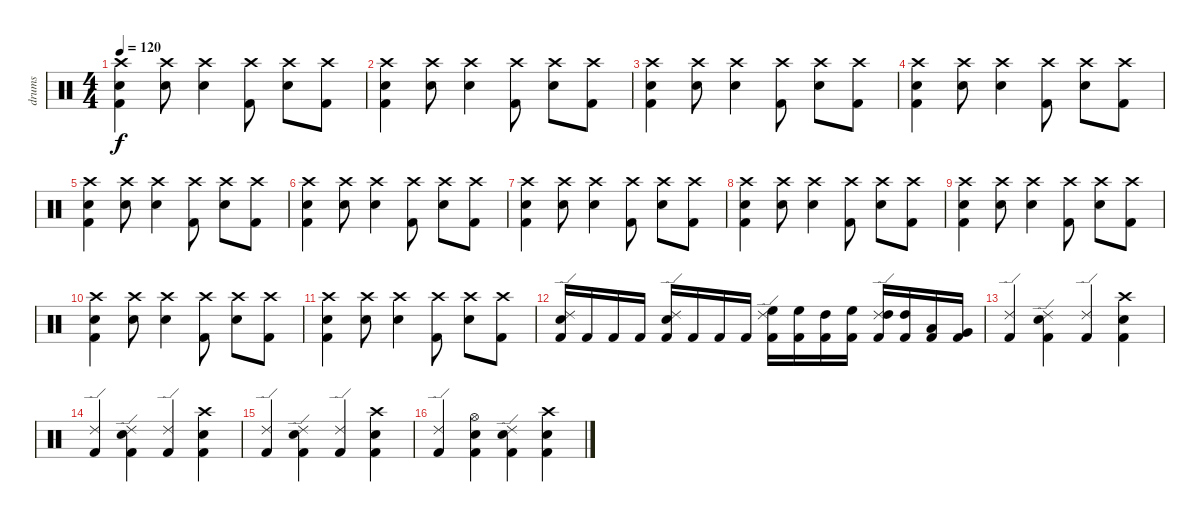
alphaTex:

\track ("drums" "drums") {instrument percussion}
\staff {score}
\articulation defaults
\ts (4 4)
\tempo 120
\clef neutral
\ks c
("Crash high (hit)" "Electric Snare (hit)" "Kick (hit) 2").4{dy f} ("Crash high (hit)" "Electric Snare (hit)").8 ("Crash high (hit)" "Electric Snare (hit)").4 ("Crash high (hit)" "Kick (hit) 2").8 ("Crash high (hit)" "Electric Snare (hit)").8 ("Crash high (hit)" "Kick (hit) 2").8 |
("Crash high (hit)" "Electric Snare (hit)" "Kick (hit) 2").4 ("Crash high (hit)" "Electric Snare (hit)").8 ("Crash high (hit)" "Electric Snare (hit)").4 ("Crash high (hit)" "Kick (hit) 2").8 ("Crash high (hit)" "Electric Snare (hit)").8 ("Crash high (hit)" "Kick (hit) 2").8 |
("Crash high (hit)" "Electric Snare (hit)" "Kick (hit) 2").4 ("Crash high (hit)" "Electric Snare (hit)").8 ("Crash high (hit)" "Electric Snare (hit)").4 ("Crash high (hit)" "Kick (hit) 2").8 ("Crash high (hit)" "Electric Snare (hit)").8 ("Crash high (hit)" "Kick (hit) 2").8 |
("Crash high (hit)" "Electric Snare (hit)" "Kick (hit) 2").4 ("Crash high (hit)" "Electric Snare (hit)").8 ("Crash high (hit)" "Electric Snare (hit)").4 ("Crash high (hit)" "Kick (hit) 2").8 ("Crash high (hit)" "Electric Snare (hit)").8 ("Crash high (hit)" "Kick (hit) 2").8 |
("Crash high (hit)" "Electric Snare (hit)" "Kick (hit) 2").4 ("Crash high (hit)" "Electric Snare (hit)").8 ("Crash high (hit)" "Electric Snare (hit)").4 ("Crash high (hit)" "Kick (hit) 2").8 ("Crash high (hit)" "Electric Snare (hit)").8 ("Crash high (hit)" "Kick (hit) 2").8 |
("Crash high (hit)" "Electric Snare (hit)" "Kick (hit) 2").4 ("Crash high (hit)" "Electric Snare (hit)").8 ("Crash high (hit)" "Electric Snare (hit)").4 ("Crash high (hit)" "Kick (hit) 2").8 ("Crash high (hit)" "Electric Snare (hit)").8 ("Crash high (hit)" "Kick (hit) 2").8 |
("Crash high (hit)" "Electric Snare (hit)" "Kick (hit) 2").4 ("Crash high (hit)" "Electric Snare (hit)").8 ("Crash high (hit)" "Electric Snare (hit)").4 ("Crash high (hit)" "Kick (hit) 2").8 ("Crash high (hit)" "Electric Snare (hit)").8 ("Crash high (hit)" "Kick (hit) 2").8 |
("Crash high (hit)" "Electric Snare (hit)" "Kick (hit) 2").4 ("Crash high (hit)" "Electric Snare (hit)").8 ("Crash high (hit)" "Electric Snare (hit)").4 ("Crash high (hit)" "Kick (hit) 2").8 ("Crash high (hit)" "Electric Snare (hit)").8 ("Crash high (hit)" "Kick (hit) 2").8 |
("Crash high (hit)" "Electric Snare (hit)" "Kick (hit) 2").4 ("Crash high (hit)" "Electric Snare (hit)").8 ("Crash high (hit)" "Electric Snare (hit)").4 ("Crash high (hit)" "Kick (hit) 2").8 ("Crash high (hit)" "Electric Snare (hit)").8 ("Crash high (hit)" "Kick (hit) 2").8 |
("Crash high (hit)" "Electric Snare (hit)" "Kick (hit) 2").4 ("Crash high (hit)" "Electric Snare (hit)").8 ("Crash high (hit)" "Electric Snare (hit)").4 ("Crash high (hit)" "Kick (hit) 2").8 ("Crash high (hit)" "Electric Snare (hit)").8 ("Crash high (hit)" "Kick (hit) 2").8 |
("Crash high (hit)" "Electric Snare (hit)" "Kick (hit) 2").4 ("Crash high (hit)" "Electric Snare (hit)").8 ("Crash high (hit)" "Electric Snare (hit)").4 ("Crash high (hit)" "Kick (hit) 2").8 ("Crash high (hit)" "Electric Snare (hit)").8 ("Crash high (hit)" "Kick (hit) 2").8 |
("Ride (edge) 2" "Electric Snare (hit)" "Kick (hit) 2").16 "Kick (hit) 2".16 "Kick (hit) 2".16 "Kick (hit) 2".16 ("Ride (edge) 2" "Electric Snare (hit)" "Kick (hit) 2").16 "Kick (hit) 2".16 "Kick (hit) 2".16 "Kick (hit) 2".16 ("Ride (edge) 2" "High Floor Tom (hit)" "Kick (hit) 2").16 ("High Floor Tom (hit)" "Kick (hit) 2").16 ("High Tom (hit)" "Kick (hit) 2").16 ("High Floor Tom (hit)" "Kick (hit) 2").16 ("Ride (edge) 2" "High Tom (hit)" "Kick (hit) 2").16 ("High Tom (hit)" "Kick (hit) 2").16 ("Low Tom (hit)" "Kick (hit) 2").16 ("Very Low Tom (hit)" "Kick (hit) 2").16 |
("Ride (edge) 2" "Kick (hit) 2").4 ("Ride (edge) 2" "Electric Snare (hit)" "Kick (hit) 2").4 ("Ride (edge) 2" "Kick (hit) 2").4 ("Crash high (hit)" "Electric Snare (hit)" "Kick (hit) 2").4 |
("Ride (edge) 2" "Kick (hit) 2").4 ("Ride (edge) 2" "Electric Snare (hit)" "Kick (hit) 2").4 ("Ride (edge) 2" "Kick (hit) 2").4 ("Crash high (hit)" "Electric Snare (hit)" "Kick (hit) 2").4 |
("Ride (edge) 2" "Kick (hit) 2").4 ("Ride (edge) 2" "Electric Snare (hit)" "Kick (hit) 2").4 ("Ride (edge) 2" "Kick (hit) 2").4 ("Crash high (hit)" "Electric Snare (hit)" "Kick (hit) 2").4 |
("Ride (edge) 2" "Kick (hit) 2").4 ("Hi-Hat (open)" "Electric Snare (hit)" "Kick (hit) 2").4 ("Ride (edge) 2" "Electric Snare (hit)" "Kick (hit) 2").4 ("Crash high (hit)" "Electric Snare (hit)" "Kick (hit) 2").4
